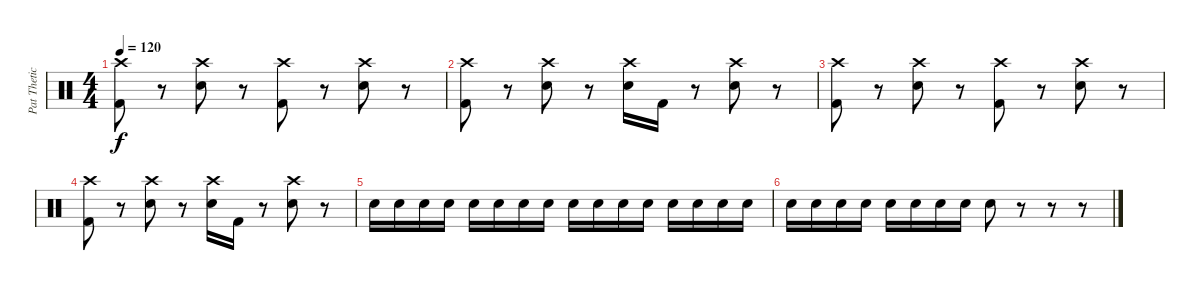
\track ("Pat Thetic" "Pat Thetic") {instrument percussion}
\staff {score}
\articulation defaults
\ts (4 4)
\tempo 120
\clef neutral
\ks c
("Crash high (hit)" "Kick (hit) 2").8{dy f} r.8 ("Crash high (hit)" "Electric Snare (hit)").8 r.8 ("Crash high (hit)" "Kick (hit) 2").8 r.8 ("Crash high (hit)" "Electric Snare (hit)").8 r.8 |
("Crash high (hit)" "Kick (hit) 2").8 r.8 ("Crash high (hit)" "Electric Snare (hit)").8 r.8 ("Crash high (hit)" "Electric Snare (hit)").16 "Kick (hit) 2".16 r.8 ("Crash high (hit)" "Electric Snare (hit)").8 r.8 |
("Crash high (hit)" "Kick (hit) 2").8 r.8 ("Crash high (hit)" "Electric Snare (hit)").8 r.8 ("Crash high (hit)" "Kick (hit) 2").8 r.8 ("Crash high (hit)" "Electric Snare (hit)").8 r.8 |
("Crash high (hit)" "Kick (hit) 2").8 r.8 ("Crash high (hit)" "Electric Snare (hit)").8 r.8 ("Crash high (hit)" "Electric Snare (hit)").16 "Kick (hit) 2".16 r.8 ("Crash high (hit)" "Electric Snare (hit)").8 r.8 |
"Electric Snare (hit)".16 "Electric Snare (hit)".16 "Electric Snare (hit)".16 "Electric Snare (hit)".16 "Electric Snare (hit)".16 "Electric Snare (hit)".16 "Electric Snare (hit)".16 "Electric Snare (hit)".16 "Electric Snare (hit)".16 "Electric Snare (hit)".16 "Electric Snare (hit)".16 "Electric Snare (hit)".16 "Electric Snare (hit)".16 "Electric Snare (hit)".16 "Electric Snare (hit)".16 "Electric Snare (hit)".16 |
"Electric Snare (hit)".16 "Electric Snare (hit)".16 "Electric Snare (hit)".16 "Electric Snare (hit)".16 "Electric Snare (hit)".16 "Electric Snare (hit)".16 "Electric Snare (hit)".16 "Electric Snare (hit)".16 "Electric Snare (hit)".8 r.8 r.8 r.8
